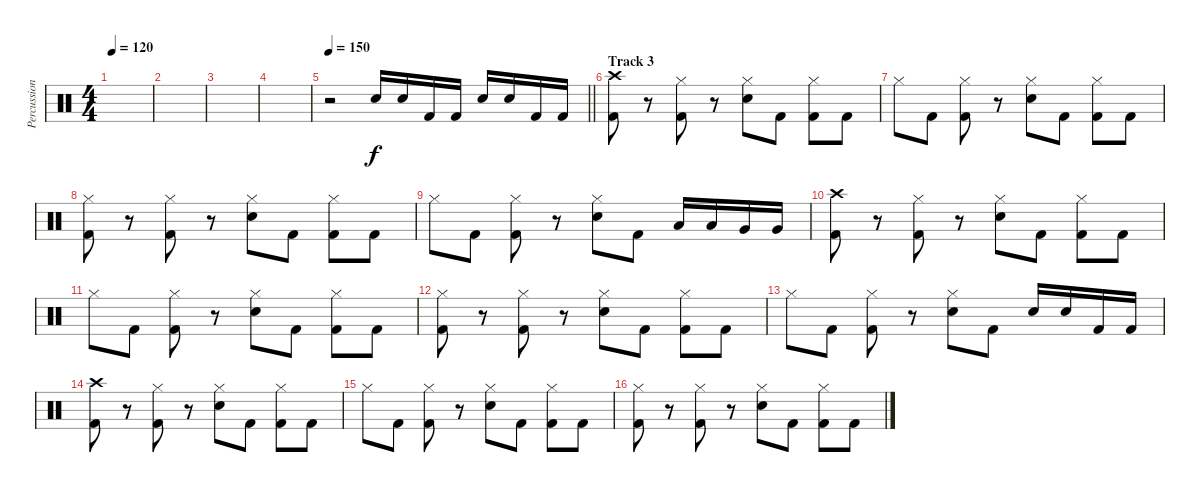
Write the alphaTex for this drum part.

\track ("Percussion" "Percussion") {instrument percussion}
\staff {score}
\articulation defaults
\ts (4 4)
\tempo 120
\clef neutral
\ks c
|
|
|
|
\tempo 150
\barLineRight lightlight
r.2 "Electric Snare (hit)".16 "Electric Snare (hit)".16 "Kick (hit) 2".16 "Kick (hit) 2".16 "Electric Snare (hit)".16 "Electric Snare (hit)".16 "Kick (hit) 2".16 "Kick (hit) 2".16 |
\section ("" "Track 3")
("Crash high (hit)" "Kick (hit) 2").8 r.8 ("Hi-Hat (closed)" "Kick (hit) 2").8 r.8 ("Hi-Hat (closed)" "Electric Snare (hit)").8 "Kick (hit) 2".8 ("Hi-Hat (closed)" "Kick (hit) 2").8 "Kick (hit) 2".8 |
"Hi-Hat (closed)".8 "Kick (hit) 2".8 ("Hi-Hat (closed)" "Kick (hit) 2").8 r.8 ("Hi-Hat (closed)" "Electric Snare (hit)").8 "Kick (hit) 2".8 ("Hi-Hat (closed)" "Kick (hit) 2").8 "Kick (hit) 2".8 |
("Hi-Hat (closed)" "Kick (hit) 2").8 r.8 ("Hi-Hat (closed)" "Kick (hit) 2").8 r.8 ("Hi-Hat (closed)" "Electric Snare (hit)").8 "Kick (hit) 2".8 ("Hi-Hat (closed)" "Kick (hit) 2").8 "Kick (hit) 2".8 |
"Hi-Hat (closed)".8 "Kick (hit) 2".8 ("Hi-Hat (closed)" "Kick (hit) 2").8 r.8 ("Hi-Hat (closed)" "Electric Snare (hit)").8 "Kick (hit) 2".8 "Low Tom (hit)".16 "Low Tom (hit)".16 "Very Low Tom (hit)".16 "Very Low Tom (hit)".16 |
("Crash high (hit)" "Kick (hit) 2").8 r.8 ("Hi-Hat (closed)" "Kick (hit) 2").8 r.8 ("Hi-Hat (closed)" "Electric Snare (hit)").8 "Kick (hit) 2".8 ("Hi-Hat (closed)" "Kick (hit) 2").8 "Kick (hit) 2".8 |
"Hi-Hat (closed)".8 "Kick (hit) 2".8 ("Hi-Hat (closed)" "Kick (hit) 2").8 r.8 ("Hi-Hat (closed)" "Electric Snare (hit)").8 "Kick (hit) 2".8 ("Hi-Hat (closed)" "Kick (hit) 2").8 "Kick (hit) 2".8 |
("Hi-Hat (closed)" "Kick (hit) 2").8 r.8 ("Hi-Hat (closed)" "Kick (hit) 2").8 r.8 ("Hi-Hat (closed)" "Electric Snare (hit)").8 "Kick (hit) 2".8 ("Hi-Hat (closed)" "Kick (hit) 2").8 "Kick (hit) 2".8 |
"Hi-Hat (closed)".8 "Kick (hit) 2".8 ("Hi-Hat (closed)" "Kick (hit) 2").8 r.8 ("Hi-Hat (closed)" "Electric Snare (hit)").8 "Kick (hit) 2".8 "Electric Snare (hit)".16 "Electric Snare (hit)".16 "Kick (hit) 2".16 "Kick (hit) 2".16 |
("Crash high (hit)" "Kick (hit) 2").8 r.8 ("Hi-Hat (closed)" "Kick (hit) 2").8 r.8 ("Hi-Hat (closed)" "Electric Snare (hit)").8 "Kick (hit) 2".8 ("Hi-Hat (closed)" "Kick (hit) 2").8 "Kick (hit) 2".8 |
"Hi-Hat (closed)".8 "Kick (hit) 2".8 ("Hi-Hat (closed)" "Kick (hit) 2").8 r.8 ("Hi-Hat (closed)" "Electric Snare (hit)").8 "Kick (hit) 2".8 ("Hi-Hat (closed)" "Kick (hit) 2").8 "Kick (hit) 2".8 |
("Hi-Hat (closed)" "Kick (hit) 2").8 r.8 ("Hi-Hat (closed)" "Kick (hit) 2").8 r.8 ("Hi-Hat (closed)" "Electric Snare (hit)").8 "Kick (hit) 2".8 ("Hi-Hat (closed)" "Kick (hit) 2").8 "Kick (hit) 2".8
